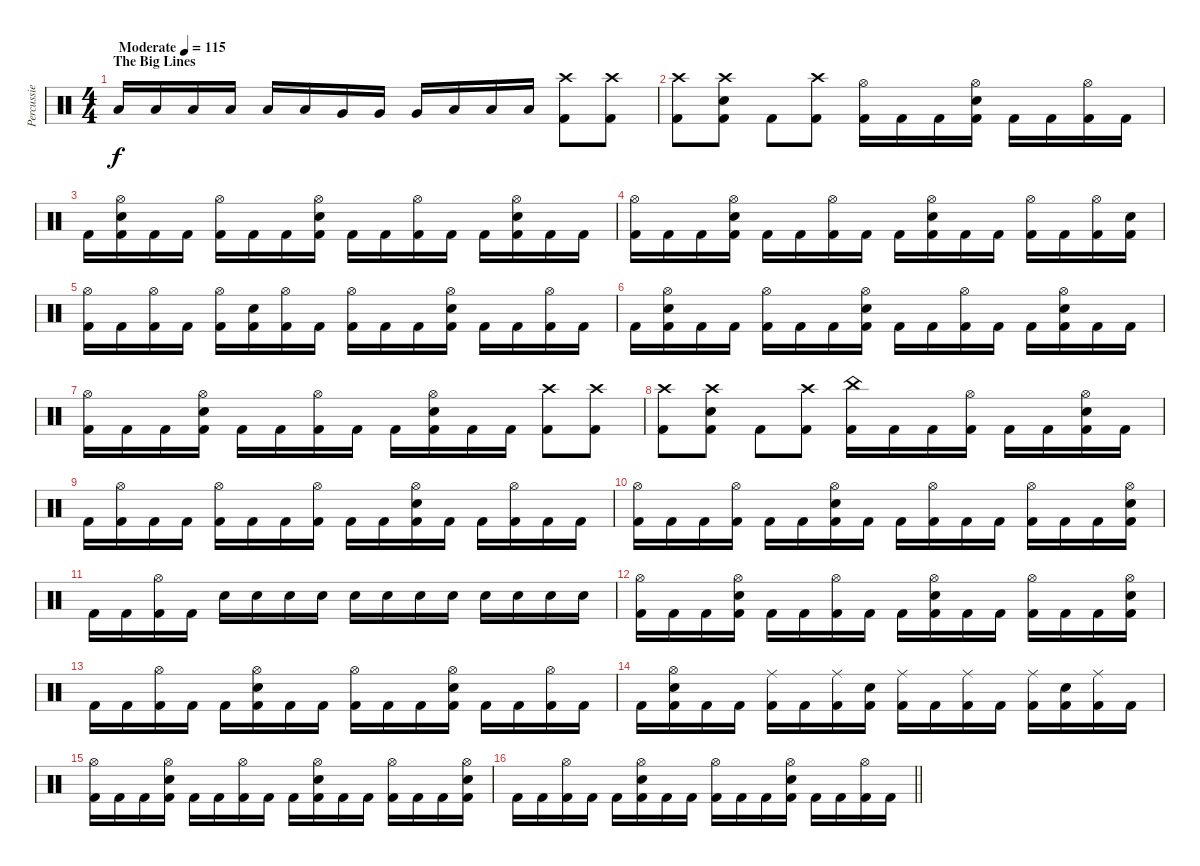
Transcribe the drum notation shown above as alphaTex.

\track ("Percussie" "Percussie") {instrument percussion}
\staff {score}
\articulation defaults
\ts (4 4)
\section ("" "The Big Lines")
\tempo (115 "Moderate")
\clef neutral
\ks c "Low Tom (hit)".16{dy f} "Low Tom (hit)".16 "Low Tom (hit)".16 "Low Tom (hit)".16 "Low Tom (hit)".16 "Low Tom (hit)".16 "Very Low Tom (hit)".16 "Very Low Tom (hit)".16 "Very Low Tom (hit)".16 "Low Floor Tom (hit)".16 "Low Floor Tom (hit)".16 "Low Floor Tom (hit)".16
("Crash high (hit)" "Kick (hit) 2").8 ("Crash high (hit)" "Kick (hit) 2").8 |
("Crash high (hit)" "Kick (hit) 2").8 ("Crash high (hit)" "Electric Snare (hit)" "Kick (hit) 2").8 "Kick (hit) 2".8 ("Crash high (hit)" "Kick (hit) 2").8 ("Hi-Hat (open)" "Kick (hit) 2").16 "Kick (hit) 2".16 "Kick (hit) 2".16 ("Hi-Hat (open)" "Electric Snare (hit)" "Kick (hit) 2").16 "Kick (hit) 2".16 "Kick (hit) 2".16 ("Hi-Hat (open)" "Kick (hit) 2").16 "Kick (hit) 2".16 |
"Kick (hit) 2".16 ("Hi-Hat (open)" "Electric Snare (hit)" "Kick (hit) 2").16 "Kick (hit) 2".16 "Kick (hit) 2".16 ("Hi-Hat (open)" "Kick (hit) 2").16 "Kick (hit) 2".16 "Kick (hit) 2".16 ("Hi-Hat (open)" "Electric Snare (hit)" "Kick (hit) 2").16 "Kick (hit) 2".16 "Kick (hit) 2".16 ("Hi-Hat (open)" "Kick (hit) 2").16 "Kick (hit) 2".16 "Kick (hit) 2".16 ("Hi-Hat (open)" "Electric Snare (hit)" "Kick (hit) 2").16 "Kick (hit) 2".16 "Kick (hit) 2".16 |
("Hi-Hat (open)" "Kick (hit) 2").16 "Kick (hit) 2".16 "Kick (hit) 2".16 ("Hi-Hat (open)" "Electric Snare (hit)" "Kick (hit) 2").16 "Kick (hit) 2".16 "Kick (hit) 2".16 ("Hi-Hat (open)" "Kick (hit) 2").16 "Kick (hit) 2".16 "Kick (hit) 2".16 ("Hi-Hat (open)" "Electric Snare (hit)" "Kick (hit) 2").16 "Kick (hit) 2".16 "Kick (hit) 2".16 ("Hi-Hat (open)" "Kick (hit) 2").16 "Kick (hit) 2".16 ("Hi-Hat (open)" "Kick (hit) 2").16 ("Electric Snare (hit)" "Kick (hit) 2").16 |
("Hi-Hat (open)" "Kick (hit) 2").16 "Kick (hit) 2".16 ("Hi-Hat (open)" "Kick (hit) 2").16 "Kick (hit) 2".16 ("Hi-Hat (open)" "Kick (hit) 2").16 ("Electric Snare (hit)" "Kick (hit) 2").16 ("Hi-Hat (open)" "Kick (hit) 2").16 "Kick (hit) 2".16 ("Hi-Hat (open)" "Kick (hit) 2").16 "Kick (hit) 2".16 "Kick (hit) 2".16 ("Hi-Hat (open)" "Electric Snare (hit)" "Kick (hit) 2").16 "Kick (hit) 2".16 "Kick (hit) 2".16 ("Hi-Hat (open)" "Kick (hit) 2").16 "Kick (hit) 2".16 |
"Kick (hit) 2".16 ("Hi-Hat (open)" "Electric Snare (hit)" "Kick (hit) 2").16 "Kick (hit) 2".16 "Kick (hit) 2".16 ("Hi-Hat (open)" "Kick (hit) 2").16 "Kick (hit) 2".16 "Kick (hit) 2".16 ("Hi-Hat (open)" "Electric Snare (hit)" "Kick (hit) 2").16 "Kick (hit) 2".16 "Kick (hit) 2".16 ("Hi-Hat (open)" "Kick (hit) 2").16 "Kick (hit) 2".16 "Kick (hit) 2".16 ("Hi-Hat (open)" "Electric Snare (hit)" "Kick (hit) 2").16 "Kick (hit) 2".16 "Kick (hit) 2".16 |
("Hi-Hat (open)" "Kick (hit) 2").16 "Kick (hit) 2".16 "Kick (hit) 2".16 ("Hi-Hat (open)" "Electric Snare (hit)" "Kick (hit) 2").16 "Kick (hit) 2".16 "Kick (hit) 2".16 ("Hi-Hat (open)" "Kick (hit) 2").16 "Kick (hit) 2".16 "Kick (hit) 2".16 ("Hi-Hat (open)" "Electric Snare (hit)" "Kick (hit) 2").16 "Kick (hit) 2".16 "Kick (hit) 2".16 ("Crash high (hit)" "Kick (hit) 2").8 ("Crash high (hit)" "Kick (hit) 2").8 |
("Crash high (hit)" "Kick (hit) 2").8 ("Crash high (hit)" "Electric Snare (hit)" "Kick (hit) 2").8 "Kick (hit) 2".8 ("Crash high (hit)" "Kick (hit) 2").8 ("China (hit)" "Kick (hit) 2").16 "Kick (hit) 2".16 "Kick (hit) 2".16 ("Hi-Hat (open)" "Kick (hit) 2").16 "Kick (hit) 2".16 "Kick (hit) 2".16 ("Hi-Hat (open)" "Electric Snare (hit)" "Kick (hit) 2").16 "Kick (hit) 2".16 |
"Kick (hit) 2".16 ("Hi-Hat (open)" "Kick (hit) 2").16 "Kick (hit) 2".16 "Kick (hit) 2".16 ("Hi-Hat (open)" "Kick (hit) 2").16 "Kick (hit) 2".16 "Kick (hit) 2".16 ("Hi-Hat (open)" "Kick (hit) 2").16 "Kick (hit) 2".16 "Kick (hit) 2".16 ("Hi-Hat (open)" "Electric Snare (hit)" "Kick (hit) 2").16 "Kick (hit) 2".16 "Kick (hit) 2".16 ("Hi-Hat (open)" "Kick (hit) 2").16 "Kick (hit) 2".16 "Kick (hit) 2".16 |
("Hi-Hat (open)" "Kick (hit) 2").16 "Kick (hit) 2".16 "Kick (hit) 2".16 ("Hi-Hat (open)" "Kick (hit) 2").16 "Kick (hit) 2".16 "Kick (hit) 2".16 ("Hi-Hat (open)" "Electric Snare (hit)" "Kick (hit) 2").16 "Kick (hit) 2".16 "Kick (hit) 2".16 ("Hi-Hat (open)" "Kick (hit) 2").16 "Kick (hit) 2".16 "Kick (hit) 2".16 ("Hi-Hat (open)" "Kick (hit) 2").16 "Kick (hit) 2".16 "Kick (hit) 2".16 ("Hi-Hat (open)" "Electric Snare (hit)" "Kick (hit) 2").16 |
"Kick (hit) 2".16 "Kick (hit) 2".16 ("Hi-Hat (open)" "Kick (hit) 2").16 "Kick (hit) 2".16 "Electric Snare (hit)".16 "Electric Snare (hit)".16 "Electric Snare (hit)".16 "Electric Snare (hit)".16 "Electric Snare (hit)".16 "Electric Snare (hit)".16 "Electric Snare (hit)".16 "Electric Snare (hit)".16 "Electric Snare (hit)".16 "Electric Snare (hit)".16 "Electric Snare (hit)".16 "Electric Snare (hit)".16 |
("Hi-Hat (open)" "Kick (hit) 2").16 "Kick (hit) 2".16 "Kick (hit) 2".16 ("Hi-Hat (open)" "Electric Snare (hit)" "Kick (hit) 2").16 "Kick (hit) 2".16 "Kick (hit) 2".16 ("Hi-Hat (open)" "Kick (hit) 2").16 "Kick (hit) 2".16 "Kick (hit) 2".16 ("Hi-Hat (open)" "Electric Snare (hit)" "Kick (hit) 2").16 "Kick (hit) 2".16 "Kick (hit) 2".16 ("Hi-Hat (open)" "Kick (hit) 2").16 "Kick (hit) 2".16 "Kick (hit) 2".16 ("Hi-Hat (open)" "Electric Snare (hit)" "Kick (hit) 2").16 |
"Kick (hit) 2".16 "Kick (hit) 2".16 ("Hi-Hat (open)" "Kick (hit) 2").16 "Kick (hit) 2".16 "Kick (hit) 2".16 ("Hi-Hat (open)" "Electric Snare (hit)" "Kick (hit) 2").16 "Kick (hit) 2".16 "Kick (hit) 2".16 ("Hi-Hat (open)" "Kick (hit) 2").16 "Kick (hit) 2".16 "Kick (hit) 2".16 ("Hi-Hat (open)" "Electric Snare (hit)" "Kick (hit) 2").16 "Kick (hit) 2".16 "Kick (hit) 2".16 ("Hi-Hat (open)" "Kick (hit) 2").16 "Kick (hit) 2".16 |
"Kick (hit) 2".16 ("Hi-Hat (open)" "Electric Snare (hit)" "Kick (hit) 2").16 "Kick (hit) 2".16 "Kick (hit) 2".16 ("Ride (middle)" "Kick (hit) 2").16 "Kick (hit) 2".16 ("Ride (middle)" "Kick (hit) 2").16 ("Electric Snare (hit)" "Kick (hit) 2").16 ("Ride (middle)" "Kick (hit) 2").16 "Kick (hit) 2".16 ("Ride (middle)" "Kick (hit) 2").16 "Kick (hit) 2".16 ("Ride (middle)" "Kick (hit) 2").16 ("Electric Snare (hit)" "Kick (hit) 2").16 ("Ride (middle)" "Kick (hit) 2").16 "Kick (hit) 2".16 |
("Hi-Hat (open)" "Kick (hit) 2").16 "Kick (hit) 2".16 "Kick (hit) 2".16 ("Hi-Hat (open)" "Electric Snare (hit)" "Kick (hit) 2").16 "Kick (hit) 2".16 "Kick (hit) 2".16 ("Hi-Hat (open)" "Kick (hit) 2").16 "Kick (hit) 2".16 "Kick (hit) 2".16 ("Hi-Hat (open)" "Electric Snare (hit)" "Kick (hit) 2").16 "Kick (hit) 2".16 "Kick (hit) 2".16 ("Hi-Hat (open)" "Kick (hit) 2").16 "Kick (hit) 2".16 "Kick (hit) 2".16 ("Hi-Hat (open)" "Electric Snare (hit)" "Kick (hit) 2").16 |
\barLineRight lightlight "Kick (hit) 2".16 "Kick (hit) 2".16
("Hi-Hat (open)" "Kick (hit) 2").16 "Kick (hit) 2".16 "Kick (hit) 2".16 ("Hi-Hat (open)" "Electric Snare (hit)" "Kick (hit) 2").16 "Kick (hit) 2".16 "Kick (hit) 2".16 ("Hi-Hat (open)" "Kick (hit) 2").16 "Kick (hit) 2".16 "Kick (hit) 2".16 ("Hi-Hat (open)" "Electric Snare (hit)" "Kick (hit) 2").16 "Kick (hit) 2".16 "Kick (hit) 2".16 ("Hi-Hat (open)" "Kick (hit) 2").16 "Kick (hit) 2".16
